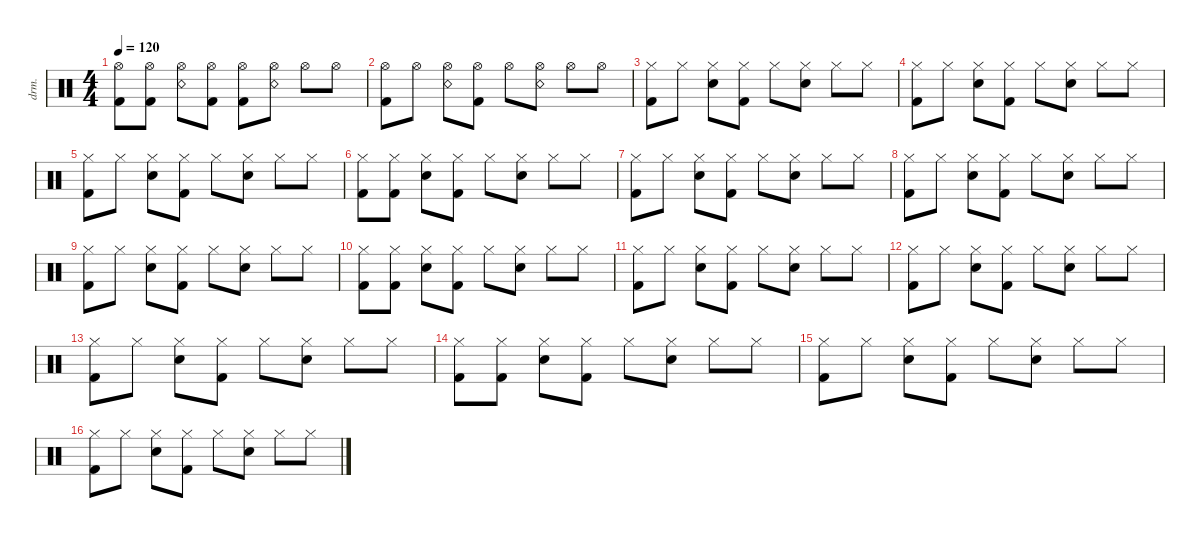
\defaultSystemsLayout 4
\hideDynamics
\bracketExtendMode nobrackets
\otherSystemsTrackNameOrientation horizontal
\track ("Drumkit" "drm.") {instrument percussion}
\staff {score}
\articulation defaults
\ts (4 4)
\tempo 120
\clef neutral
\ks c
("Kick (hit) 2" "Hi-Hat (open)").8{dy mf beam Down} ("Hi-Hat (open)" "Kick (hit) 2").8{beam Down} ("Hi-Hat (open)" "Snare (rim shot)").8{beam Down} ("Hi-Hat (open)" "Kick (hit) 2").8{beam Down} ("Hi-Hat (open)" "Kick (hit) 2").8{beam Down} ("Hi-Hat (open)" "Snare (rim shot)").8{beam Down} "Hi-Hat (open)".8{beam Down} "Hi-Hat (open)".8{beam Down} |
("Kick (hit) 2" "Hi-Hat (open)").8{beam Down} "Hi-Hat (open)".8{beam Down} ("Hi-Hat (open)" "Snare (rim shot)").8{beam Down} ("Hi-Hat (open)" "Kick (hit) 2").8{beam Down} "Hi-Hat (open)".8{beam Down} ("Hi-Hat (open)" "Snare (rim shot)").8{beam Down} "Hi-Hat (open)".8{beam Down} "Hi-Hat (open)".8{beam Down} |
("Hi-Hat (closed)" "Kick (hit) 2").8{beam Down} "Hi-Hat (closed)".8{beam Down} ("Hi-Hat (closed)" "Snare (hit) 2").8{beam Down} ("Hi-Hat (closed)" "Kick (hit) 2").8{beam Down} "Hi-Hat (closed)".8{beam Down} ("Hi-Hat (closed)" "Snare (hit) 2").8{beam Down} "Hi-Hat (closed)".8{beam Down} "Hi-Hat (closed)".8{beam Down} |
("Hi-Hat (closed)" "Kick (hit) 2").8{beam Down} "Hi-Hat (closed)".8{beam Down} ("Hi-Hat (closed)" "Snare (hit) 2").8{beam Down} ("Hi-Hat (closed)" "Kick (hit) 2").8{beam Down} "Hi-Hat (closed)".8{beam Down} ("Hi-Hat (closed)" "Snare (hit) 2").8{beam Down} "Hi-Hat (closed)".8{beam Down} "Hi-Hat (closed)".8{beam Down} |
("Hi-Hat (closed)" "Kick (hit) 2").8{beam Down} "Hi-Hat (closed)".8{beam Down} ("Hi-Hat (closed)" "Snare (hit) 2").8{beam Down} ("Hi-Hat (closed)" "Kick (hit) 2").8{beam Down} "Hi-Hat (closed)".8{beam Down} ("Hi-Hat (closed)" "Snare (hit) 2").8{beam Down} "Hi-Hat (closed)".8{beam Down} "Hi-Hat (closed)".8{beam Down} |
("Hi-Hat (closed)" "Kick (hit) 2").8{beam Down} ("Hi-Hat (closed)" "Kick (hit) 2").8{beam Down} ("Hi-Hat (closed)" "Snare (hit) 2").8{beam Down} ("Hi-Hat (closed)" "Kick (hit) 2").8{beam Down} "Hi-Hat (closed)".8{beam Down} ("Hi-Hat (closed)" "Snare (hit) 2").8{beam Down} "Hi-Hat (closed)".8{beam Down} "Hi-Hat (closed)".8{beam Down} |
("Hi-Hat (closed)" "Kick (hit) 2").8{beam Down} "Hi-Hat (closed)".8{beam Down} ("Hi-Hat (closed)" "Snare (hit) 2").8{beam Down} ("Hi-Hat (closed)" "Kick (hit) 2").8{beam Down} "Hi-Hat (closed)".8{beam Down} ("Hi-Hat (closed)" "Snare (hit) 2").8{beam Down} "Hi-Hat (closed)".8{beam Down} "Hi-Hat (closed)".8{beam Down} |
("Hi-Hat (closed)" "Kick (hit) 2").8{beam Down} "Hi-Hat (closed)".8{beam Down} ("Hi-Hat (closed)" "Snare (hit) 2").8{beam Down} ("Hi-Hat (closed)" "Kick (hit) 2").8{beam Down} "Hi-Hat (closed)".8{beam Down} ("Hi-Hat (closed)" "Snare (hit) 2").8{beam Down} "Hi-Hat (closed)".8{beam Down} "Hi-Hat (closed)".8{beam Down} |
("Hi-Hat (closed)" "Kick (hit) 2").8{beam Down} "Hi-Hat (closed)".8{beam Down} ("Hi-Hat (closed)" "Snare (hit) 2").8{beam Down} ("Hi-Hat (closed)" "Kick (hit) 2").8{beam Down} "Hi-Hat (closed)".8{beam Down} ("Hi-Hat (closed)" "Snare (hit) 2").8{beam Down} "Hi-Hat (closed)".8{beam Down} "Hi-Hat (closed)".8{beam Down} |
("Hi-Hat (closed)" "Kick (hit) 2").8{beam Down} ("Hi-Hat (closed)" "Kick (hit) 2").8{beam Down} ("Hi-Hat (closed)" "Snare (hit) 2").8{beam Down} ("Hi-Hat (closed)" "Kick (hit) 2").8{beam Down} "Hi-Hat (closed)".8{beam Down} ("Hi-Hat (closed)" "Snare (hit) 2").8{beam Down} "Hi-Hat (closed)".8{beam Down} "Hi-Hat (closed)".8{beam Down} |
("Hi-Hat (closed)" "Kick (hit) 2").8{beam Down} "Hi-Hat (closed)".8{beam Down} ("Hi-Hat (closed)" "Snare (hit) 2").8{beam Down} ("Hi-Hat (closed)" "Kick (hit) 2").8{beam Down} "Hi-Hat (closed)".8{beam Down} ("Hi-Hat (closed)" "Snare (hit) 2").8{beam Down} "Hi-Hat (closed)".8{beam Down} "Hi-Hat (closed)".8{beam Down} |
("Hi-Hat (closed)" "Kick (hit) 2").8{beam Down} "Hi-Hat (closed)".8{beam Down} ("Hi-Hat (closed)" "Snare (hit) 2").8{beam Down} ("Hi-Hat (closed)" "Kick (hit) 2").8{beam Down} "Hi-Hat (closed)".8{beam Down} ("Hi-Hat (closed)" "Snare (hit) 2").8{beam Down} "Hi-Hat (closed)".8{beam Down} "Hi-Hat (closed)".8{beam Down} |
("Hi-Hat (closed)" "Kick (hit) 2").8{beam Down} "Hi-Hat (closed)".8{beam Down} ("Hi-Hat (closed)" "Snare (hit) 2").8{beam Down} ("Hi-Hat (closed)" "Kick (hit) 2").8{beam Down} "Hi-Hat (closed)".8{beam Down} ("Hi-Hat (closed)" "Snare (hit) 2").8{beam Down} "Hi-Hat (closed)".8{beam Down} "Hi-Hat (closed)".8{beam Down} |
("Hi-Hat (closed)" "Kick (hit) 2").8{beam Down} ("Hi-Hat (closed)" "Kick (hit) 2").8{beam Down} ("Hi-Hat (closed)" "Snare (hit) 2").8{beam Down} ("Hi-Hat (closed)" "Kick (hit) 2").8{beam Down} "Hi-Hat (closed)".8{beam Down} ("Hi-Hat (closed)" "Snare (hit) 2").8{beam Down} "Hi-Hat (closed)".8{beam Down} "Hi-Hat (closed)".8{beam Down} |
("Hi-Hat (closed)" "Kick (hit) 2").8{beam Down} "Hi-Hat (closed)".8{beam Down} ("Hi-Hat (closed)" "Snare (hit) 2").8{beam Down} ("Hi-Hat (closed)" "Kick (hit) 2").8{beam Down} "Hi-Hat (closed)".8{beam Down} ("Hi-Hat (closed)" "Snare (hit) 2").8{beam Down} "Hi-Hat (closed)".8{beam Down} "Hi-Hat (closed)".8{beam Down} |
("Hi-Hat (closed)" "Kick (hit) 2").8{beam Down} "Hi-Hat (closed)".8{beam Down} ("Hi-Hat (closed)" "Snare (hit) 2").8{beam Down} ("Hi-Hat (closed)" "Kick (hit) 2").8{beam Down} "Hi-Hat (closed)".8{beam Down} ("Hi-Hat (closed)" "Snare (hit) 2").8{beam Down} "Hi-Hat (closed)".8{beam Down} "Hi-Hat (closed)".8{beam Down}
